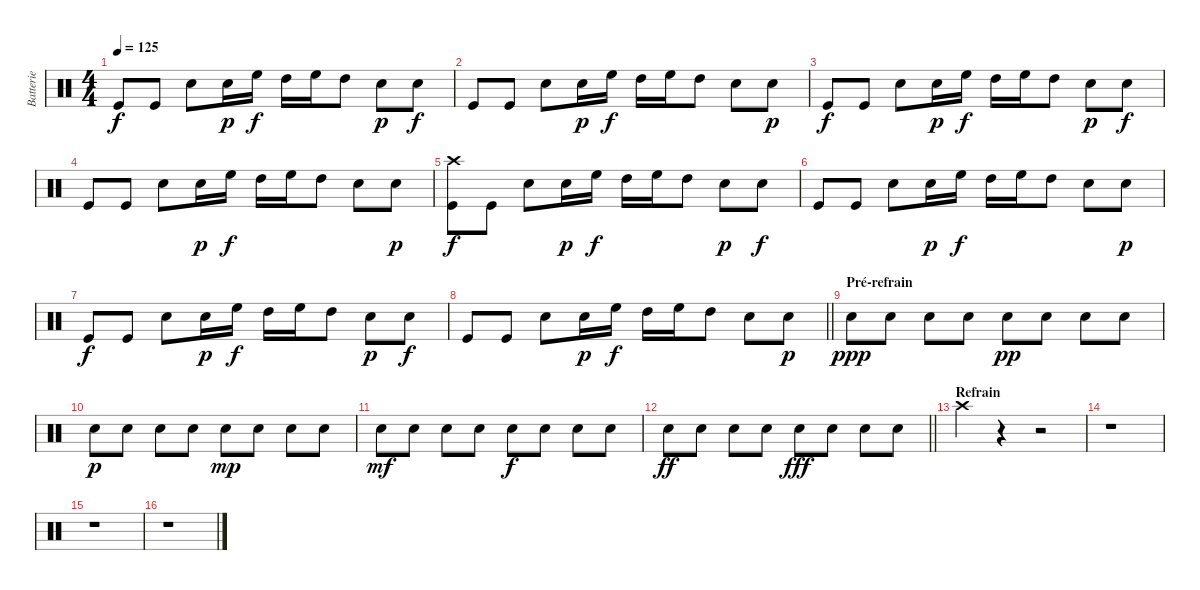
\track ("Batterie" "Batterie") {instrument percussion}
\staff {score}
\articulation defaults
\ts (4 4)
\tempo 125
\clef neutral
\ks c "Kick (hit)".8{dy f} "Kick (hit)".8 "Snare (hit) 2".8 "Snare (hit) 2".16{dy p} "High Floor Tom (hit)".16{dy f} "High Tom (hit)".16 "High Floor Tom (hit)".16 "High Tom (hit)".8 "Snare (hit) 2".8{dy p} "Snare (hit) 2".8{dy f}
|
"Kick (hit)".8 "Kick (hit)".8 "Snare (hit) 2".8 "Snare (hit) 2".16{dy p} "High Floor Tom (hit)".16{dy f} "High Tom (hit)".16 "High Floor Tom (hit)".16 "High Tom (hit)".8 "Snare (hit) 2".8 "Snare (hit) 2".8{dy p} |
"Kick (hit)".8{dy f} "Kick (hit)".8 "Snare (hit) 2".8 "Snare (hit) 2".16{dy p} "High Floor Tom (hit)".16{dy f} "High Tom (hit)".16 "High Floor Tom (hit)".16 "High Tom (hit)".8 "Snare (hit) 2".8{dy p} "Snare (hit) 2".8{dy f} |
"Kick (hit)".8 "Kick (hit)".8 "Snare (hit) 2".8 "Snare (hit) 2".16{dy p} "High Floor Tom (hit)".16{dy f} "High Tom (hit)".16 "High Floor Tom (hit)".16 "High Tom (hit)".8 "Snare (hit) 2".8 "Snare (hit) 2".8{dy p} |
("Kick (hit)" "Crash high (hit)").8{dy f} "Kick (hit)".8 "Snare (hit) 2".8 "Snare (hit) 2".16{dy p} "High Floor Tom (hit)".16{dy f} "High Tom (hit)".16 "High Floor Tom (hit)".16 "High Tom (hit)".8 "Snare (hit) 2".8{dy p} "Snare (hit) 2".8{dy f} |
"Kick (hit)".8 "Kick (hit)".8 "Snare (hit) 2".8 "Snare (hit) 2".16{dy p} "High Floor Tom (hit)".16{dy f} "High Tom (hit)".16 "High Floor Tom (hit)".16 "High Tom (hit)".8 "Snare (hit) 2".8 "Snare (hit) 2".8{dy p} |
"Kick (hit)".8{dy f} "Kick (hit)".8 "Snare (hit) 2".8 "Snare (hit) 2".16{dy p} "High Floor Tom (hit)".16{dy f} "High Tom (hit)".16 "High Floor Tom (hit)".16 "High Tom (hit)".8 "Snare (hit) 2".8{dy p} "Snare (hit) 2".8{dy f} |
\barLineRight lightlight "Kick (hit)".8 "Kick (hit)".8 "Snare (hit) 2".8 "Snare (hit) 2".16{dy p} "High Floor Tom (hit)".16{dy f} "High Tom (hit)".16 "High Floor Tom (hit)".16 "High Tom (hit)".8 "Snare (hit) 2".8 "Snare (hit) 2".8{dy p}
|
\section ("" "Pré-refrain")
"Snare (hit) 2".8{dy ppp} "Snare (hit) 2".8 "Snare (hit) 2".8 "Snare (hit) 2".8 "Snare (hit) 2".8{dy pp} "Snare (hit) 2".8 "Snare (hit) 2".8 "Snare (hit) 2".8 |
"Snare (hit) 2".8{dy p} "Snare (hit) 2".8 "Snare (hit) 2".8 "Snare (hit) 2".8 "Snare (hit) 2".8{dy mp} "Snare (hit) 2".8 "Snare (hit) 2".8 "Snare (hit) 2".8 |
"Snare (hit) 2".8{dy mf} "Snare (hit) 2".8 "Snare (hit) 2".8 "Snare (hit) 2".8 "Snare (hit) 2".8{dy f} "Snare (hit) 2".8 "Snare (hit) 2".8 "Snare (hit) 2".8 |
\barLineRight lightlight "Snare (hit) 2".8{dy ff} "Snare (hit) 2".8 "Snare (hit) 2".8 "Snare (hit) 2".8 "Snare (hit) 2".8{dy fff} "Snare (hit) 2".8 "Snare (hit) 2".8 "Snare (hit) 2".8
|
\section ("" "Refrain")
"Crash high (hit)".4 r.4 r.2 |
r.1 |
r.1 |
r.1
